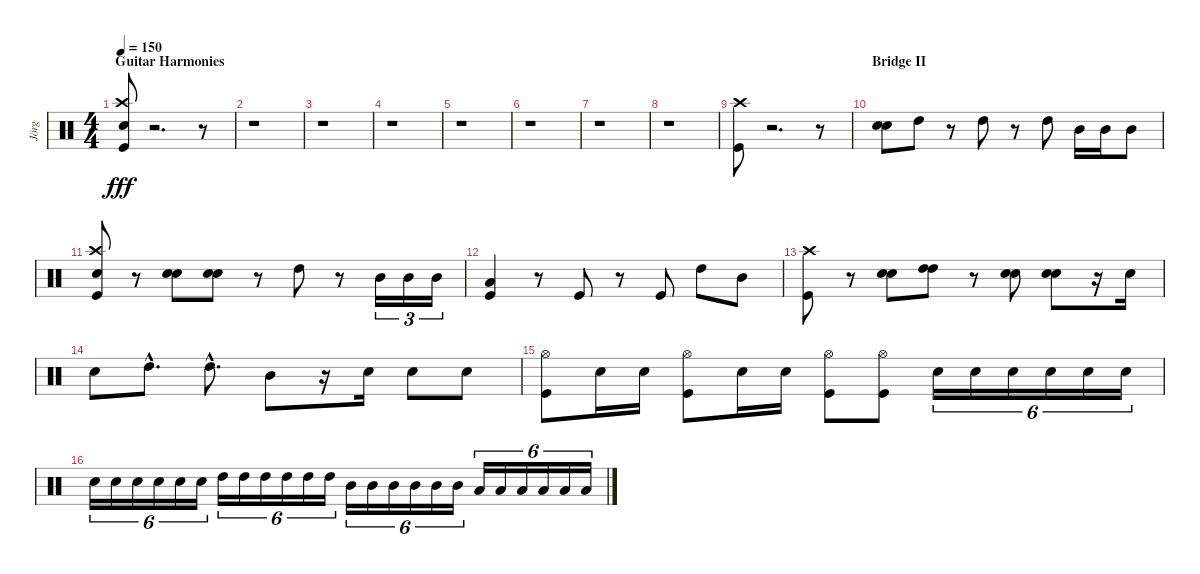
\track ("Jörg" "Jörg") {instrument percussion}
\staff {score}
\articulation defaults
\ts (4 4)
\section ("" "Guitar Harmonies")
\tempo 150
\clef neutral
\ks c
("Snare (hit) 2" "Crash high (hit)" "Kick (hit)").8{dy fff} r.2{d} r.8 |
r.1 |
r.1 |
r.1 |
r.1 |
r.1 |
r.1 |
r.1 |
("Crash high (hit)" "Kick (hit)").8 r.2{d} r.8 |
\section ("" "Bridge II")
("Snare (hit) 2" "Snare (hit) 2").8 "High Tom (hit)".8 r.8 "High Tom (hit)".8 r.8 "High Tom (hit)".8 "Mid Tom (hit)".16 "Mid Tom (hit)".16 "Mid Tom (hit)".8 |
("Kick (hit)" "Snare (hit) 2" "Crash high (hit)").8 r.8 ("Snare (hit) 2" "Snare (hit) 2").8 ("Snare (hit) 2" "Snare (hit) 2").8 r.8 "High Tom (hit)".8 r.8 "Mid Tom (hit)".16{tu (3 2)} "Mid Tom (hit)".16{tu (3 2)} "Mid Tom (hit)".16{tu (3 2)} |
("Low Tom (hit)" "Kick (hit)").4 r.8 "Kick (hit)".8 r.8 "Kick (hit)".8 "High Tom (hit)".8 "Mid Tom (hit)".8 |
("Crash high (hit)" "Kick (hit)").8 r.8 ("Snare (hit) 2" "Snare (hit) 2").8 ("High Tom (hit)" "High Tom (hit)").8 r.8 ("Snare (hit) 2" "Snare (hit) 2").8 ("Snare (hit) 2" "Snare (hit) 2").8 r.16 "Snare (hit) 2".16 |
"Snare (hit) 2".8 "High Tom (hit)"{hac}.8{d} "High Tom (hit)"{hac}.8{d} "Mid Tom (hit)".8 r.16 "Snare (hit) 2".16 "Snare (hit) 2".8 "Snare (hit) 2".8 |
("Kick (hit)" "Hi-Hat (open)").8 "Snare (hit) 2".16 "Snare (hit) 2".16 ("Kick (hit)" "Hi-Hat (open)").8 "Snare (hit) 2".16 "Snare (hit) 2".16 ("Hi-Hat (open)" "Kick (hit)").8 ("Hi-Hat (open)" "Kick (hit)").8 "Snare (hit) 2".16{tu (6 4)} "Snare (hit) 2".16{tu (6 4)} "Snare (hit) 2".16{tu (6 4)} "Snare (hit) 2".16{tu (6 4)} "Snare (hit) 2".16{tu (6 4)} "Snare (hit) 2".16{tu (6 4)} |
"Snare (hit) 2".16{tu (6 4)} "Snare (hit) 2".16{tu (6 4)} "Snare (hit) 2".16{tu (6 4)} "Snare (hit) 2".16{tu (6 4)} "Snare (hit) 2".16{tu (6 4)} "Snare (hit) 2".16{tu (6 4)} "High Tom (hit)".16{tu (6 4)} "High Tom (hit)".16{tu (6 4)} "High Tom (hit)".16{tu (6 4)} "High Tom (hit)".16{tu (6 4)} "High Tom (hit)".16{tu (6 4)} "High Tom (hit)".16{tu (6 4)} "Mid Tom (hit)".16{tu (6 4)} "Mid Tom (hit)".16{tu (6 4)} "Mid Tom (hit)".16{tu (6 4)} "Mid Tom (hit)".16{tu (6 4)} "Mid Tom (hit)".16{tu (6 4)} "Mid Tom (hit)".16{tu (6 4)} "Low Tom (hit)".16{tu (6 4)} "Low Tom (hit)".16{tu (6 4)} "Low Tom (hit)".16{tu (6 4)} "Low Tom (hit)".16{tu (6 4)} "Low Tom (hit)".16{tu (6 4)} "Low Tom (hit)".16{tu (6 4)}
